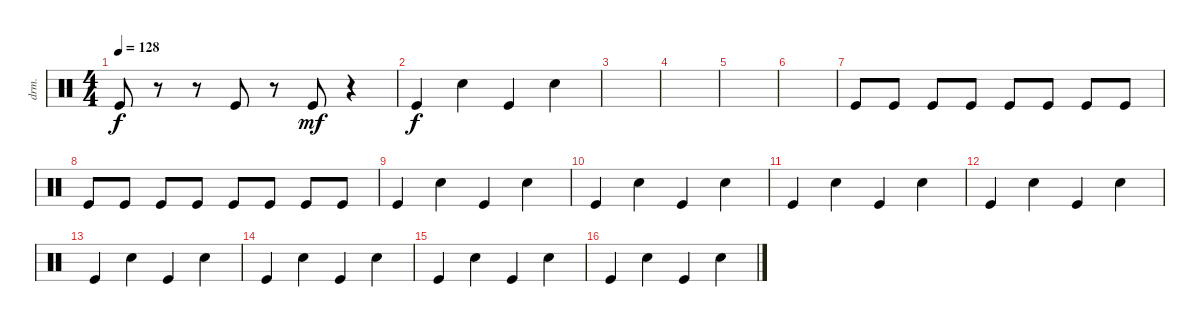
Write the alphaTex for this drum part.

\defaultSystemsLayout 4
\bracketExtendMode groupsimilarinstruments
\otherSystemsTrackNameOrientation horizontal
\track ("Drumkit" "drm.") {instrument percussion}
\staff {score}
\articulation defaults
\ts (4 4)
\tempo 128
\clef neutral
\ks c "Kick (hit)".8{dy f}
r.8 r.8 "Kick (hit)".8 r.8 "Kick (hit)".8{dy mf} r.4 |
"Kick (hit)".4{dy f} "Snare (hit) 2".4 "Kick (hit)".4 "Snare (hit) 2".4 |
|
|
|
|
"Kick (hit)".8 "Kick (hit)".8 "Kick (hit)".8 "Kick (hit)".8 "Kick (hit)".8 "Kick (hit)".8 "Kick (hit)".8 "Kick (hit)".8 |
"Kick (hit)".8 "Kick (hit)".8 "Kick (hit)".8 "Kick (hit)".8 "Kick (hit)".8 "Kick (hit)".8 "Kick (hit)".8 "Kick (hit)".8 |
"Kick (hit)".4 "Snare (hit) 2".4 "Kick (hit)".4 "Snare (hit) 2".4 |
"Kick (hit)".4 "Snare (hit) 2".4 "Kick (hit)".4 "Snare (hit) 2".4 |
"Kick (hit)".4 "Snare (hit) 2".4 "Kick (hit)".4 "Snare (hit) 2".4 |
"Kick (hit)".4 "Snare (hit) 2".4 "Kick (hit)".4 "Snare (hit) 2".4 |
"Kick (hit)".4 "Snare (hit) 2".4 "Kick (hit)".4 "Snare (hit) 2".4 |
"Kick (hit)".4 "Snare (hit) 2".4 "Kick (hit)".4 "Snare (hit) 2".4 |
"Kick (hit)".4 "Snare (hit) 2".4 "Kick (hit)".4 "Snare (hit) 2".4 |
"Kick (hit)".4 "Snare (hit) 2".4 "Kick (hit)".4 "Snare (hit) 2".4
